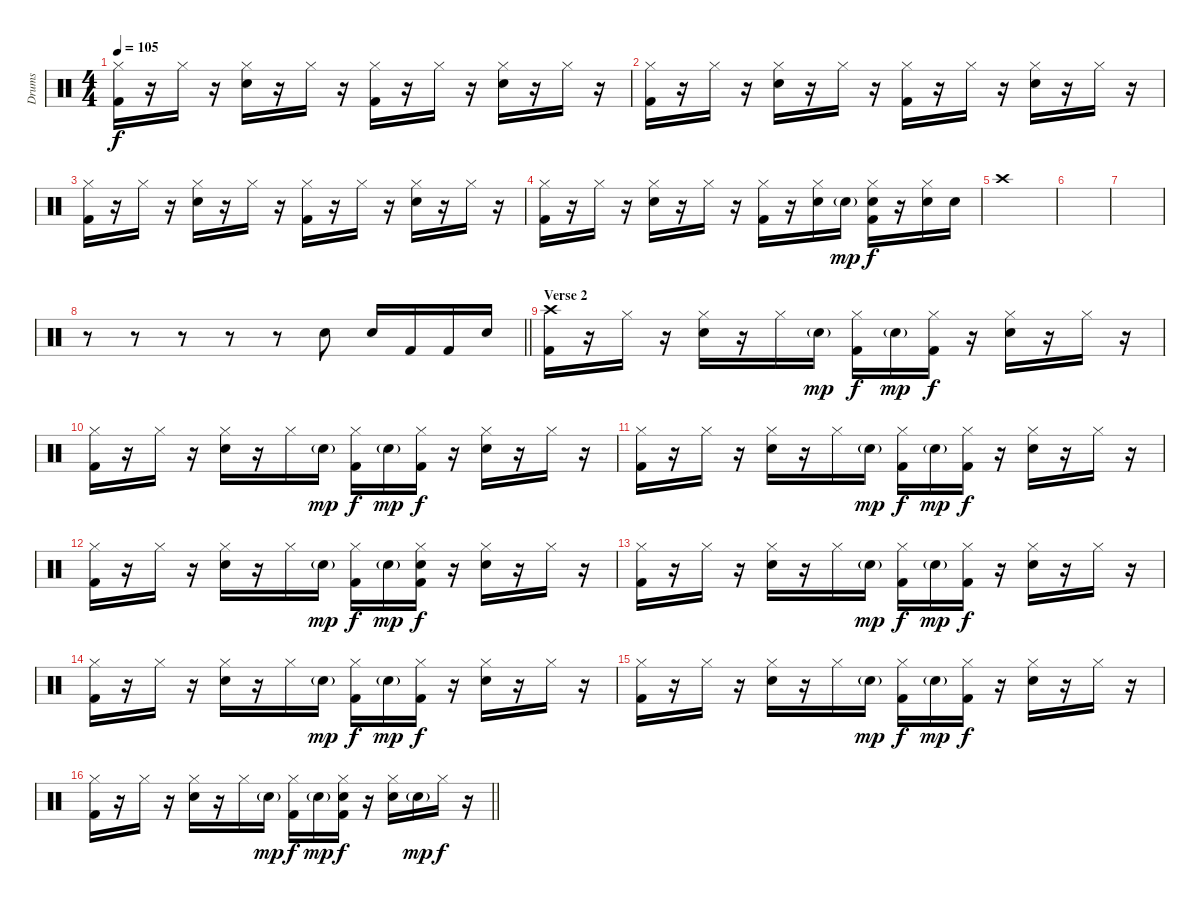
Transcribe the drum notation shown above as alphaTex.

\track ("Drums" "Drums") {instrument percussion}
\staff {score}
\articulation defaults
\ts (4 4)
\tempo 105
\clef neutral
\ks c
("Kick (hit) 2" "Hi-Hat (closed)").16{dy f} r.16 "Hi-Hat (closed)".16 r.16 ("Snare (hit) 2" "Hi-Hat (closed)").16 r.16 "Hi-Hat (closed)".16 r.16 ("Kick (hit) 2" "Hi-Hat (closed)").16 r.16 "Hi-Hat (closed)".16 r.16 ("Snare (hit) 2" "Hi-Hat (closed)").16 r.16 "Hi-Hat (closed)".16 r.16 |
("Kick (hit) 2" "Hi-Hat (closed)").16 r.16 "Hi-Hat (closed)".16 r.16 ("Snare (hit) 2" "Hi-Hat (closed)").16 r.16 "Hi-Hat (closed)".16 r.16 ("Kick (hit) 2" "Hi-Hat (closed)").16 r.16 "Hi-Hat (closed)".16 r.16 ("Snare (hit) 2" "Hi-Hat (closed)").16 r.16 "Hi-Hat (closed)".16 r.16 |
("Kick (hit) 2" "Hi-Hat (closed)").16 r.16 "Hi-Hat (closed)".16 r.16 ("Snare (hit) 2" "Hi-Hat (closed)").16 r.16 "Hi-Hat (closed)".16 r.16 ("Kick (hit) 2" "Hi-Hat (closed)").16 r.16 "Hi-Hat (closed)".16 r.16 ("Snare (hit) 2" "Hi-Hat (closed)").16 r.16 "Hi-Hat (closed)".16 r.16 |
("Kick (hit) 2" "Hi-Hat (closed)").16 r.16 "Hi-Hat (closed)".16 r.16 ("Snare (hit) 2" "Hi-Hat (closed)").16 r.16 "Hi-Hat (closed)".16 r.16 ("Kick (hit) 2" "Hi-Hat (closed)").16 r.16 ("Snare (hit) 2" "Hi-Hat (closed)").16 "Snare (hit) 2"{g}.16{dy mp} ("Kick (hit) 2" "Snare (hit) 2" "Hi-Hat (closed)").16{dy f} r.16 ("Snare (hit) 2" "Hi-Hat (closed)").16 "Snare (hit) 2".16 |
"Crash high (hit)".1 |
|
|
\barLineRight lightlight
r.8 r.8 r.8 r.8 r.8 "Snare (hit) 2".8 "Snare (hit) 2".16 "Kick (hit) 2".16 "Kick (hit) 2".16 "Snare (hit) 2".16 |
\section ("" "Verse 2")
("Kick (hit) 2" "Crash high (hit)").16 r.16 "Hi-Hat (closed)".16 r.16 ("Snare (hit) 2" "Hi-Hat (closed)").16 r.16 "Hi-Hat (closed)".16 "Snare (hit) 2"{g}.16{dy mp} ("Kick (hit) 2" "Hi-Hat (closed)").16{dy f} "Snare (hit) 2"{g}.16{dy mp} ("Kick (hit) 2" "Hi-Hat (closed)").16{dy f} r.16 ("Snare (hit) 2" "Hi-Hat (closed)").16 r.16 "Hi-Hat (closed)".16 r.16 |
("Kick (hit) 2" "Hi-Hat (closed)").16 r.16 "Hi-Hat (closed)".16 r.16 ("Snare (hit) 2" "Hi-Hat (closed)").16 r.16 "Hi-Hat (closed)".16 "Snare (hit) 2"{g}.16{dy mp} ("Kick (hit) 2" "Hi-Hat (closed)").16{dy f} "Snare (hit) 2"{g}.16{dy mp} ("Kick (hit) 2" "Hi-Hat (closed)").16{dy f} r.16 ("Snare (hit) 2" "Hi-Hat (closed)").16 r.16 "Hi-Hat (closed)".16 r.16 |
("Kick (hit) 2" "Hi-Hat (closed)").16 r.16 "Hi-Hat (closed)".16 r.16 ("Snare (hit) 2" "Hi-Hat (closed)").16 r.16 "Hi-Hat (closed)".16 "Snare (hit) 2"{g}.16{dy mp} ("Kick (hit) 2" "Hi-Hat (closed)").16{dy f} "Snare (hit) 2"{g}.16{dy mp} ("Kick (hit) 2" "Hi-Hat (closed)").16{dy f} r.16 ("Snare (hit) 2" "Hi-Hat (closed)").16 r.16 "Hi-Hat (closed)".16 r.16 |
("Kick (hit) 2" "Hi-Hat (closed)").16 r.16 "Hi-Hat (closed)".16 r.16 ("Snare (hit) 2" "Hi-Hat (closed)").16 r.16 "Hi-Hat (closed)".16 "Snare (hit) 2"{g}.16{dy mp} ("Kick (hit) 2" "Hi-Hat (closed)").16{dy f} "Snare (hit) 2"{g}.16{dy mp} ("Kick (hit) 2" "Snare (hit) 2" "Hi-Hat (closed)").16{dy f} r.16 ("Snare (hit) 2" "Hi-Hat (closed)").16 r.16 "Hi-Hat (closed)".16 r.16 |
("Kick (hit) 2" "Hi-Hat (closed)").16 r.16 "Hi-Hat (closed)".16 r.16 ("Snare (hit) 2" "Hi-Hat (closed)").16 r.16 "Hi-Hat (closed)".16 "Snare (hit) 2"{g}.16{dy mp} ("Kick (hit) 2" "Hi-Hat (closed)").16{dy f} "Snare (hit) 2"{g}.16{dy mp} ("Kick (hit) 2" "Hi-Hat (closed)").16{dy f} r.16 ("Snare (hit) 2" "Hi-Hat (closed)").16 r.16 "Hi-Hat (closed)".16 r.16 |
("Kick (hit) 2" "Hi-Hat (closed)").16 r.16 "Hi-Hat (closed)".16 r.16 ("Snare (hit) 2" "Hi-Hat (closed)").16 r.16 "Hi-Hat (closed)".16 "Snare (hit) 2"{g}.16{dy mp} ("Kick (hit) 2" "Hi-Hat (closed)").16{dy f} "Snare (hit) 2"{g}.16{dy mp} ("Kick (hit) 2" "Hi-Hat (closed)").16{dy f} r.16 ("Snare (hit) 2" "Hi-Hat (closed)").16 r.16 "Hi-Hat (closed)".16 r.16 |
("Kick (hit) 2" "Hi-Hat (closed)").16 r.16 "Hi-Hat (closed)".16 r.16 ("Snare (hit) 2" "Hi-Hat (closed)").16 r.16 "Hi-Hat (closed)".16 "Snare (hit) 2"{g}.16{dy mp} ("Kick (hit) 2" "Hi-Hat (closed)").16{dy f} "Snare (hit) 2"{g}.16{dy mp} ("Kick (hit) 2" "Hi-Hat (closed)").16{dy f} r.16 ("Snare (hit) 2" "Hi-Hat (closed)").16 r.16 "Hi-Hat (closed)".16 r.16 |
\barLineRight lightlight
("Kick (hit) 2" "Hi-Hat (closed)").16 r.16 "Hi-Hat (closed)".16 r.16 ("Snare (hit) 2" "Hi-Hat (closed)").16 r.16 "Hi-Hat (closed)".16 "Snare (hit) 2"{g}.16{dy mp} ("Kick (hit) 2" "Hi-Hat (closed)").16{dy f} "Snare (hit) 2"{g}.16{dy mp} ("Kick (hit) 2" "Snare (hit) 2" "Hi-Hat (closed)").16{dy f} r.16 ("Snare (hit) 2" "Hi-Hat (closed)").16 "Snare (hit) 2"{g}.16{dy mp} "Hi-Hat (closed)".16{dy f} r.16
